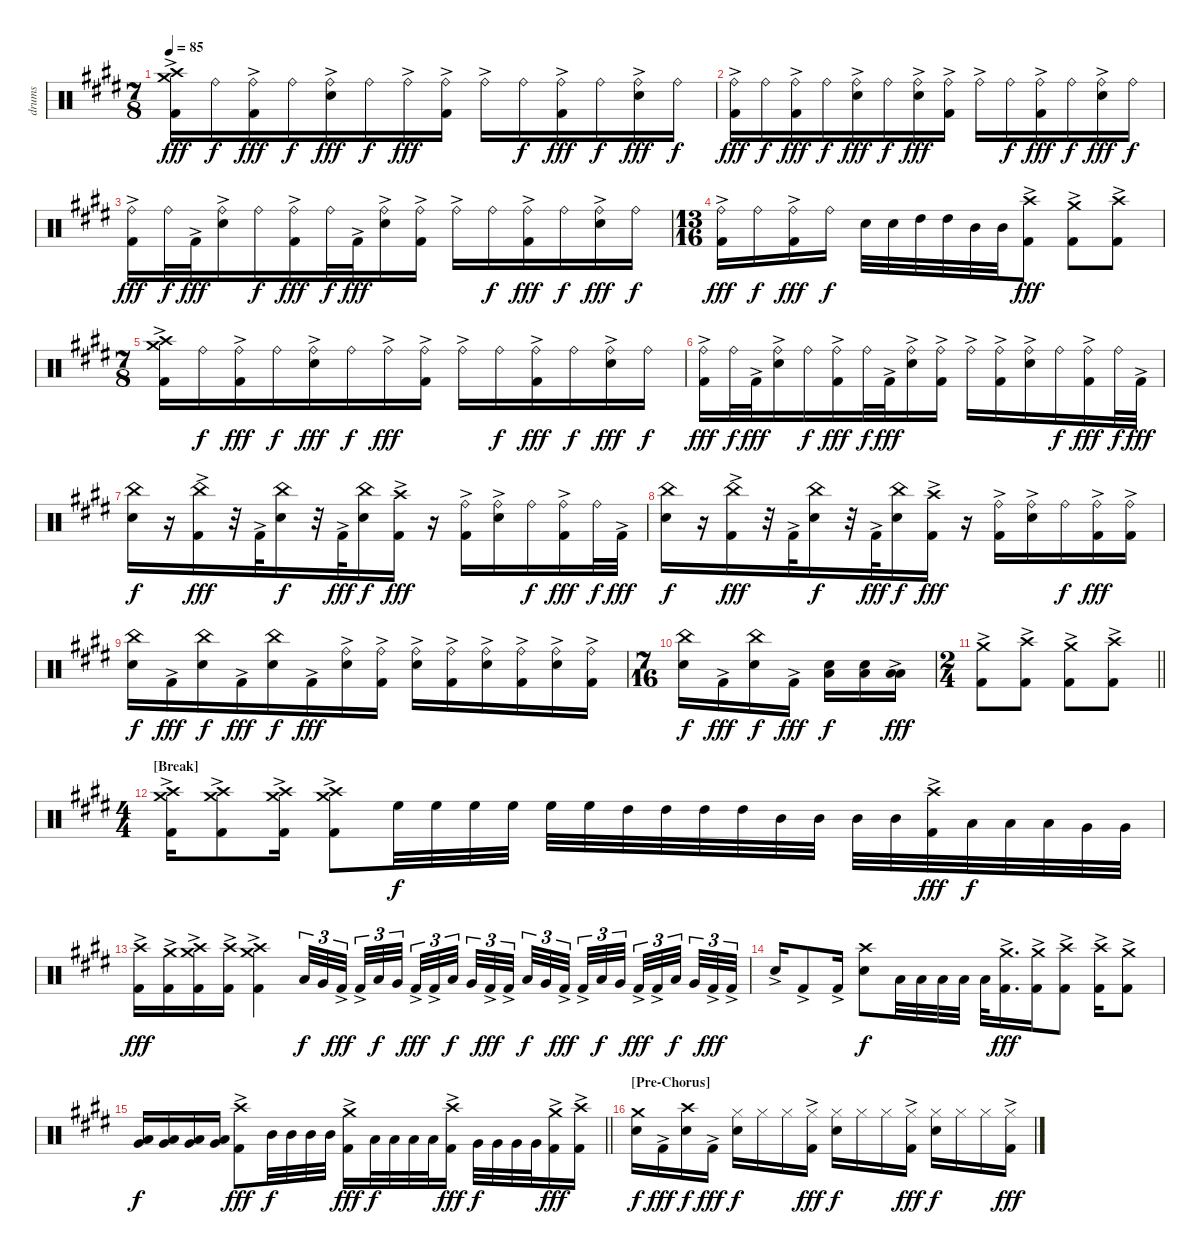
\track ("drums" "drums") {instrument percussion}
\staff {score}
\articulation defaults
\ts (7 8)
\tempo 85
\clef neutral
\ks e
("Crash high (hit)" "Crash medium (hit)" "Kick (hit) 2"{ac}).16{dy fff} "Ride (bell)".16{dy f} ("Ride (bell)"{ac} "Kick (hit) 2"{ac}).16{dy fff} "Ride (bell)".16{dy f} ("Ride (bell)"{ac} "Snare (hit) 2").16{dy fff} "Ride (bell)".16{dy f} "Ride (bell)"{ac}.16{dy fff} ("Ride (bell)" "Kick (hit) 2"{ac}).16 "Ride (bell)"{ac}.16 "Ride (bell)".16{dy f} ("Ride (bell)"{ac} "Kick (hit) 2"{ac}).16{dy fff} "Ride (bell)".16{dy f} ("Ride (bell)"{ac} "Snare (hit) 2").16{dy fff} "Ride (bell)".16{dy f} |
("Ride (bell)"{ac} "Kick (hit) 2"{ac}).16{dy fff} "Ride (bell)".16{dy f} ("Ride (bell)"{ac} "Kick (hit) 2"{ac}).16{dy fff} "Ride (bell)".16{dy f} ("Ride (bell)"{ac} "Snare (hit) 2").16{dy fff} "Ride (bell)".16{dy f} ("Ride (bell)"{ac} "Snare (hit) 2").16{dy fff} ("Ride (bell)" "Kick (hit) 2"{ac}).16 "Ride (bell)"{ac}.16 "Ride (bell)".16{dy f} ("Ride (bell)"{ac} "Kick (hit) 2"{ac}).16{dy fff} "Ride (bell)".16{dy f} ("Ride (bell)"{ac} "Snare (hit) 2").16{dy fff} "Ride (bell)".16{dy f} |
("Ride (bell)"{ac} "Kick (hit) 2"{ac}).16{dy fff} "Ride (bell)".32{dy f} "Kick (hit) 2"{ac}.32{dy fff} ("Ride (bell)"{ac} "Snare (hit) 2").16 "Ride (bell)".16{dy f} ("Ride (bell)"{ac} "Kick (hit) 2"{ac}).16{dy fff} "Ride (bell)".32{dy f} "Kick (hit) 2"{ac}.32{dy fff} ("Ride (bell)"{ac} "Snare (hit) 2").16 ("Ride (bell)" "Kick (hit) 2"{ac}).16 "Ride (bell)"{ac}.16 "Ride (bell)".16{dy f} ("Ride (bell)"{ac} "Kick (hit) 2"{ac}).16{dy fff} "Ride (bell)".16{dy f} ("Ride (bell)"{ac} "Snare (hit) 2").16{dy fff} "Ride (bell)".16{dy f} |
\ts (13 16)
("Ride (bell)"{ac} "Kick (hit) 2"{ac}).16{dy fff} "Ride (bell)".16{dy f} ("Ride (bell)"{ac} "Kick (hit) 2"{ac}).16{dy fff} "Ride (bell)".16{dy f} "Snare (hit) 2".32 "Snare (hit) 2".32 "High Tom (hit)".32 "High Tom (hit)".32 "Mid Tom (hit)".32 "Mid Tom (hit)".32 ("Crash high (hit)" "Kick (hit) 2"{ac}).8{dy fff} ("Crash medium (hit)" "Kick (hit) 2"{ac}).8 ("Crash high (hit)" "Kick (hit) 2"{ac}).8 |
\ts (7 8)
("Crash high (hit)" "Crash medium (hit)" "Kick (hit) 2"{ac}).16 "Ride (bell)".16{dy f} ("Ride (bell)"{ac} "Kick (hit) 2"{ac}).16{dy fff} "Ride (bell)".16{dy f} ("Ride (bell)"{ac} "Snare (hit) 2").16{dy fff} "Ride (bell)".16{dy f} "Ride (bell)"{ac}.16{dy fff} ("Ride (bell)" "Kick (hit) 2"{ac}).16 "Ride (bell)"{ac}.16 "Ride (bell)".16{dy f} ("Ride (bell)"{ac} "Kick (hit) 2"{ac}).16{dy fff} "Ride (bell)".16{dy f} ("Ride (bell)"{ac} "Snare (hit) 2").16{dy fff} "Ride (bell)".16{dy f} |
("Ride (bell)"{ac} "Kick (hit) 2"{ac}).16{dy fff} "Ride (bell)".32{dy f} "Kick (hit) 2"{ac}.32{dy fff} ("Ride (bell)"{ac} "Snare (hit) 2").16 "Ride (bell)".16{dy f} ("Ride (bell)"{ac} "Kick (hit) 2"{ac}).16{dy fff} "Ride (bell)".32{dy f} "Kick (hit) 2"{ac}.32{dy fff} ("Ride (bell)"{ac} "Snare (hit) 2").16 ("Ride (bell)" "Kick (hit) 2"{ac}).16 "Ride (bell)"{ac}.16 ("Ride (bell)" "Kick (hit) 2"{ac}).16 ("Ride (bell)"{ac} "Snare (hit) 2").16 "Ride (bell)".16{dy f} ("Ride (bell)"{ac} "Kick (hit) 2"{ac}).16{dy fff} "Ride (bell)".32{dy f} "Kick (hit) 2"{ac}.32{dy fff} |
("China (hit)" "Snare (hit) 2").16{dy f} r.16 ("China (hit)" "Kick (hit) 2"{ac}).16{dy fff} r.32 "Kick (hit) 2"{ac}.32 ("China (hit)" "Snare (hit) 2").16{dy f} r.32 "Kick (hit) 2"{ac}.32{dy fff} ("China (hit)" "Snare (hit) 2").16{dy f} ("Crash high (hit)" "Kick (hit) 2"{ac}).16{dy fff} r.16 ("Ride (bell)" "Kick (hit) 2"{ac}).16 ("Ride (bell)"{ac} "Snare (hit) 2").16 "Ride (bell)".16{dy f} ("Ride (bell)"{ac} "Kick (hit) 2"{ac}).16{dy fff} "Ride (bell)".32{dy f} "Kick (hit) 2"{ac}.32{dy fff} |
("China (hit)" "Snare (hit) 2").16{dy f} r.16 ("China (hit)" "Kick (hit) 2"{ac}).16{dy fff} r.32 "Kick (hit) 2"{ac}.32 ("China (hit)" "Snare (hit) 2").16{dy f} r.32 "Kick (hit) 2"{ac}.32{dy fff} ("China (hit)" "Snare (hit) 2").16{dy f} ("Crash high (hit)" "Kick (hit) 2"{ac}).16{dy fff} r.16 ("Ride (bell)" "Kick (hit) 2"{ac}).16 ("Ride (bell)"{ac} "Snare (hit) 2").16 "Ride (bell)".16{dy f} ("Ride (bell)"{ac} "Kick (hit) 2"{ac}).16{dy fff} ("Ride (bell)" "Kick (hit) 2"{ac}).16 |
("China (hit)" "Snare (hit) 2").16{dy f} "Kick (hit) 2"{ac}.16{dy fff} ("China (hit)" "Snare (hit) 2").16{dy f} "Kick (hit) 2"{ac}.16{dy fff} ("China (hit)" "Snare (hit) 2").16{dy f} "Kick (hit) 2"{ac}.16{dy fff} ("Ride (bell)"{ac} "Snare (hit) 2").16 ("Ride (bell)" "Kick (hit) 2"{ac}).16 ("Ride (bell)"{ac} "Snare (hit) 2").16 ("Ride (bell)" "Kick (hit) 2"{ac}).16 ("Ride (bell)"{ac} "Snare (hit) 2").16 ("Ride (bell)" "Kick (hit) 2"{ac}).16 ("Ride (bell)"{ac} "Snare (hit) 2").16 ("Ride (bell)" "Kick (hit) 2"{ac}).16 |
\ts (7 16)
("China (hit)" "Snare (hit) 2").16{dy f} "Kick (hit) 2"{ac}.16{dy fff} ("China (hit)" "Snare (hit) 2").16{dy f} "Kick (hit) 2"{ac}.16{dy fff} ("Snare (hit) 2" "Low Floor Tom (hit)").16{dy f} ("Snare (hit) 2" "Low Floor Tom (hit)").16 ("Low Tom (hit)"{ac} "Low Floor Tom (hit)"{ac}).16{dy fff} |
\ts (2 4)
\barLineRight lightlight
("Crash medium (hit)" "Kick (hit) 2"{ac}).8 ("Crash high (hit)" "Kick (hit) 2"{ac}).8 ("Crash medium (hit)" "Kick (hit) 2"{ac}).8 ("Crash high (hit)" "Kick (hit) 2"{ac}).8 |
\ts (4 4)
\section ("" "[Break]")
("Crash high (hit)" "Crash medium (hit)" "Kick (hit) 2"{ac}).16 ("Crash high (hit)" "Crash medium (hit)" "Kick (hit) 2"{ac}).8 ("Crash high (hit)" "Crash medium (hit)" "Kick (hit) 2"{ac}).16 ("Crash high (hit)" "Crash medium (hit)" "Kick (hit) 2"{ac}).8 "High Floor Tom (hit)".32{dy f} "High Floor Tom (hit)".32 "High Floor Tom (hit)".32 "High Floor Tom (hit)".32 "High Floor Tom (hit)".32 "High Floor Tom (hit)".32 "High Tom (hit)".32 "High Tom (hit)".32 "High Tom (hit)".32 "High Tom (hit)".32 "Mid Tom (hit)".32 "Mid Tom (hit)".32 "Mid Tom (hit)".32 "Mid Tom (hit)".32 ("Crash high (hit)" "Kick (hit) 2"{ac}).32{dy fff} "Low Tom (hit)".32{dy f} "Low Tom (hit)".32 "Low Tom (hit)".32 "Very Low Tom (hit)".32 "Very Low Tom (hit)".32 |
("Crash high (hit)" "Kick (hit) 2"{ac}).16{dy fff} ("Crash medium (hit)" "Kick (hit) 2"{ac}).16 ("Crash medium (hit)" "Crash high (hit)" "Kick (hit) 2"{ac}).16 ("Crash high (hit)" "Kick (hit) 2"{ac}).16 ("Crash medium (hit)" "Crash high (hit)" "Kick (hit) 2"{ac}).4 "Low Floor Tom (hit)".32{tu (3 2) dy f} "Very Low Tom (hit)".32{tu (3 2)} "Kick (hit) 2"{ac}.32{tu (3 2) dy fff beam splitsecondary} "Kick (hit) 2"{ac}.32{tu (3 2)} "Low Floor Tom (hit)".32{tu (3 2) dy f} "Very Low Tom (hit)".32{tu (3 2) beam splitsecondary} "Kick (hit) 2"{ac}.32{tu (3 2) dy fff} "Kick (hit) 2"{ac}.32{tu (3 2)} "Low Floor Tom (hit)".32{tu (3 2) dy f beam splitsecondary} "Very Low Tom (hit)".32{tu (3 2)} "Kick (hit) 2"{ac}.32{tu (3 2) dy fff} "Kick (hit) 2"{ac}.32{tu (3 2)} "Low Floor Tom (hit)".32{tu (3 2) dy f} "Very Low Tom (hit)".32{tu (3 2)} "Kick (hit) 2"{ac}.32{tu (3 2) dy fff beam splitsecondary} "Kick (hit) 2"{ac}.32{tu (3 2)} "Low Floor Tom (hit)".32{tu (3 2) dy f} "Very Low Tom (hit)".32{tu (3 2) beam splitsecondary} "Kick (hit) 2"{ac}.32{tu (3 2) dy fff} "Kick (hit) 2"{ac}.32{tu (3 2)} "Low Floor Tom (hit)".32{tu (3 2) dy f beam splitsecondary} "Very Low Tom (hit)".32{tu (3 2)} "Kick (hit) 2"{ac}.32{tu (3 2) dy fff} "Kick (hit) 2"{ac}.32{tu (3 2)} |
"Snare (hit) 2"{ac}.16 "Kick (hit) 2"{ac}.8 "Kick (hit) 2"{ac}.16 ("Crash high (hit)" "Snare (hit) 2").8{dy f} "Low Tom (hit)".32 "Low Tom (hit)".32 "Low Tom (hit)".32 "Low Tom (hit)".32 "Low Tom (hit)".32 ("Crash medium (hit)" "Kick (hit) 2"{ac}).16{d dy fff} ("Crash medium (hit)" "Kick (hit) 2"{ac}).16 ("Crash high (hit)" "Kick (hit) 2"{ac}).8 ("Crash high (hit)" "Kick (hit) 2"{ac}).16 ("Crash medium (hit)" "Kick (hit) 2"{ac}).8 |
\barLineRight lightlight
("Low Tom (hit)" "Very Low Tom (hit)").16{dy f} ("Low Tom (hit)" "Very Low Tom (hit)").16 ("Low Tom (hit)" "Very Low Tom (hit)").16 ("Low Tom (hit)" "Very Low Tom (hit)").16 ("Crash high (hit)" "Kick (hit) 2"{ac}).8{dy fff} "Mid Tom (hit)".32{dy f} "Mid Tom (hit)".32 "Mid Tom (hit)".32 "Mid Tom (hit)".32 ("Crash medium (hit)" "Kick (hit) 2"{ac}).16{dy fff} "Low Tom (hit)".32{dy f} "Low Tom (hit)".32 "Low Tom (hit)".32 "Low Tom (hit)".32 ("Crash high (hit)" "Kick (hit) 2"{ac}).16{dy fff} "Very Low Tom (hit)".32{dy f} "Very Low Tom (hit)".32 "Very Low Tom (hit)".32 "Very Low Tom (hit)".32 ("Crash medium (hit)" "Kick (hit) 2"{ac}).16{dy fff} ("Crash high (hit)" "Kick (hit) 2"{ac}).16 |
\section ("" "[Pre-Chorus]")
("Crash medium (hit)" "Snare (hit) 2").16{dy f} "Kick (hit) 2"{ac}.16{dy fff} ("Crash high (hit)" "Snare (hit) 2").16{dy f} "Kick (hit) 2"{ac}.16{dy fff} ("Hi-Hat (closed)" "Snare (hit) 2").16{dy f} "Hi-Hat (closed)".16 "Hi-Hat (closed)".16 ("Hi-Hat (closed)" "Kick (hit) 2"{ac}).16{dy fff} ("Hi-Hat (closed)" "Snare (hit) 2").16{dy f} "Hi-Hat (closed)".16 "Hi-Hat (closed)".16 ("Hi-Hat (closed)" "Kick (hit) 2"{ac}).16{dy fff} ("Hi-Hat (closed)" "Snare (hit) 2").16{dy f} "Hi-Hat (closed)".16 "Hi-Hat (closed)".16 ("Hi-Hat (closed)" "Kick (hit) 2"{ac}).16{dy fff}
